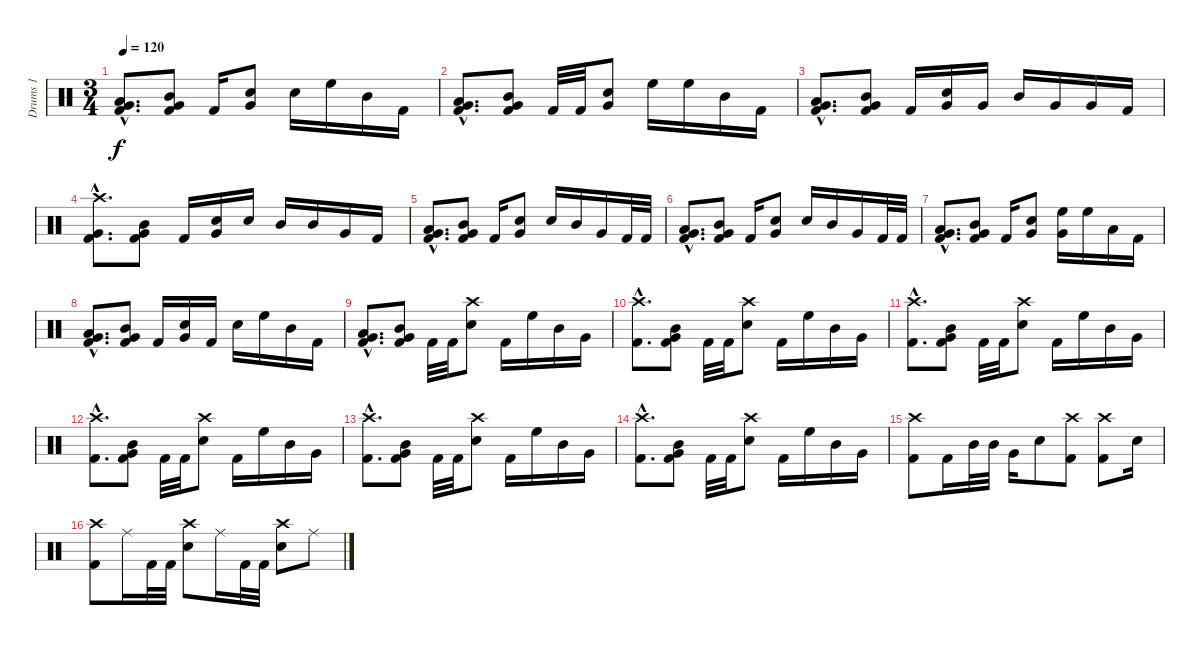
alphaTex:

\track ("Drums 1" "Drums 1") {instrument percussion}
\staff {score}
\articulation defaults
\ts (3 4)
\tempo 120
\clef neutral
\ks c
("Very Low Tom (hit)"{hac} "Low Floor Tom (hit)"{hac} "Kick (hit) 2"{hac}).8{d dy f} ("Mid Tom (hit)" "Very Low Tom (hit)" "Kick (hit) 2").8 "Kick (hit) 2".16 ("Snare (hit) 2" "Very Low Tom (hit)").8 "Snare (hit) 2".16 "High Floor Tom (hit)".16 "Mid Tom (hit)".16 "Kick (hit) 2".16 |
("Very Low Tom (hit)"{hac} "Low Floor Tom (hit)"{hac} "Kick (hit) 2"{hac}).8{d} ("Mid Tom (hit)" "Very Low Tom (hit)" "Kick (hit) 2").8 "Kick (hit) 2".32 "Kick (hit) 2".32 ("Snare (hit) 2" "Very Low Tom (hit)").8 "High Floor Tom (hit)".16 "High Floor Tom (hit)".16 "Mid Tom (hit)".16 "Kick (hit) 2".16 |
("Very Low Tom (hit)"{hac} "Low Floor Tom (hit)"{hac} "Kick (hit) 2"{hac}).8{d} ("Mid Tom (hit)" "Very Low Tom (hit)" "Kick (hit) 2").8 "Kick (hit) 2".16 ("Snare (hit) 2" "Very Low Tom (hit)").16 "Very Low Tom (hit)".16 "Mid Tom (hit)".16 "Very Low Tom (hit)".16 "Very Low Tom (hit)".16 "Kick (hit) 2".16 |
("Crash high (hit)"{hac} "Very Low Tom (hit)"{hac} "Kick (hit) 2"{hac}).8{d} ("Mid Tom (hit)" "Very Low Tom (hit)" "Kick (hit) 2").8 "Kick (hit) 2".16 ("Snare (hit) 2" "Very Low Tom (hit)").16 "Snare (hit) 2".16 "Mid Tom (hit)".16 "Mid Tom (hit)".16 "Very Low Tom (hit)".16 "Kick (hit) 2".16 |
("Very Low Tom (hit)"{hac} "Low Floor Tom (hit)"{hac} "Kick (hit) 2"{hac}).8{d} ("Mid Tom (hit)" "Very Low Tom (hit)" "Kick (hit) 2").8 "Kick (hit) 2".16 ("Snare (hit) 2" "Very Low Tom (hit)").8 "Snare (hit) 2".16 "Mid Tom (hit)".16 "Very Low Tom (hit)".16 "Kick (hit) 2".32 "Kick (hit) 2".32 |
("Very Low Tom (hit)"{hac} "Low Floor Tom (hit)"{hac} "Kick (hit) 2"{hac}).8{d} ("Mid Tom (hit)" "Very Low Tom (hit)" "Kick (hit) 2").8 "Kick (hit) 2".16 ("Snare (hit) 2" "Very Low Tom (hit)").8 "Snare (hit) 2".16 "Mid Tom (hit)".16 "Very Low Tom (hit)".16 "Kick (hit) 2".32 "Kick (hit) 2".32 |
("Very Low Tom (hit)"{hac} "Low Floor Tom (hit)"{hac} "Kick (hit) 2"{hac}).8{d} ("Mid Tom (hit)" "Very Low Tom (hit)" "Kick (hit) 2").8 "Kick (hit) 2".16 ("Snare (hit) 2" "Very Low Tom (hit)").8 ("High Floor Tom (hit)" "Very Low Tom (hit)").16 "High Floor Tom (hit)".16 "Low Floor Tom (hit)".16 "Kick (hit) 2".16 |
("Very Low Tom (hit)"{hac} "Low Floor Tom (hit)"{hac} "Kick (hit) 2"{hac}).8{d} ("Mid Tom (hit)" "Very Low Tom (hit)" "Kick (hit) 2").8 "Kick (hit) 2".16 ("Snare (hit) 2" "Very Low Tom (hit)").16 "Kick (hit) 2".16 "Snare (hit) 2".16 "High Floor Tom (hit)".16 "Mid Tom (hit)".16 "Kick (hit) 2".16 |
("Very Low Tom (hit)"{hac} "Low Floor Tom (hit)"{hac} "Kick (hit) 2"{hac}).8{d} ("Mid Tom (hit)" "Very Low Tom (hit)" "Kick (hit) 2").8 "Kick (hit) 2".32 "Kick (hit) 2".32 ("Crash high (hit)" "Snare (hit) 2").8 "Kick (hit) 2".16 "High Floor Tom (hit)".16 "Mid Tom (hit)".16 "Very Low Tom (hit)".16 |
("Crash high (hit)"{hac} "Kick (hit) 2"{hac}).8{d} ("Mid Tom (hit)" "Very Low Tom (hit)" "Kick (hit) 2").8 "Kick (hit) 2".32 "Kick (hit) 2".32 ("Crash high (hit)" "Snare (hit) 2").8 "Kick (hit) 2".16 "High Floor Tom (hit)".16 "Mid Tom (hit)".16 "Very Low Tom (hit)".16 |
("Crash high (hit)"{hac} "Kick (hit) 2"{hac}).8{d} ("Mid Tom (hit)" "Very Low Tom (hit)" "Kick (hit) 2").8 "Kick (hit) 2".32 "Kick (hit) 2".32 ("Crash high (hit)" "Snare (hit) 2").8 "Kick (hit) 2".16 "High Floor Tom (hit)".16 "Mid Tom (hit)".16 "Very Low Tom (hit)".16 |
("Crash high (hit)"{hac} "Kick (hit) 2"{hac}).8{d} ("Mid Tom (hit)" "Very Low Tom (hit)" "Kick (hit) 2").8 "Kick (hit) 2".32 "Kick (hit) 2".32 ("Crash high (hit)" "Snare (hit) 2").8 "Kick (hit) 2".16 "High Floor Tom (hit)".16 "Mid Tom (hit)".16 "Very Low Tom (hit)".16 |
("Crash high (hit)"{hac} "Kick (hit) 2"{hac}).8{d} ("Mid Tom (hit)" "Very Low Tom (hit)" "Kick (hit) 2").8 "Kick (hit) 2".32 "Kick (hit) 2".32 ("Crash high (hit)" "Snare (hit) 2").8 "Kick (hit) 2".16 "High Floor Tom (hit)".16 "Mid Tom (hit)".16 "Very Low Tom (hit)".16 |
("Crash high (hit)"{hac} "Kick (hit) 2"{hac}).8{d} ("Mid Tom (hit)" "Very Low Tom (hit)" "Kick (hit) 2").8 "Kick (hit) 2".32 "Kick (hit) 2".32 ("Crash high (hit)" "Snare (hit) 2").8 "Kick (hit) 2".16 "High Floor Tom (hit)".16 "Mid Tom (hit)".16 "Very Low Tom (hit)".16 |
("Crash high (hit)" "Kick (hit) 2").8 "Kick (hit) 2".16 "Mid Tom (hit)".32 "Mid Tom (hit)".32 "Very Low Tom (hit)".16 "Snare (hit) 2".8 ("Crash high (hit)" "Kick (hit) 2").8 ("Crash high (hit)" "Kick (hit) 2").8 "Snare (hit) 2".16 |
("Crash high (hit)" "Kick (hit) 2").8 "Ride (middle)".16 "Kick (hit) 2".32 "Kick (hit) 2".32 ("Crash high (hit)" "Snare (hit) 2").8 "Ride (middle)".16 "Kick (hit) 2".32 "Kick (hit) 2".32 ("Crash high (hit)" "Snare (hit) 2").8 "Ride (middle)".8
